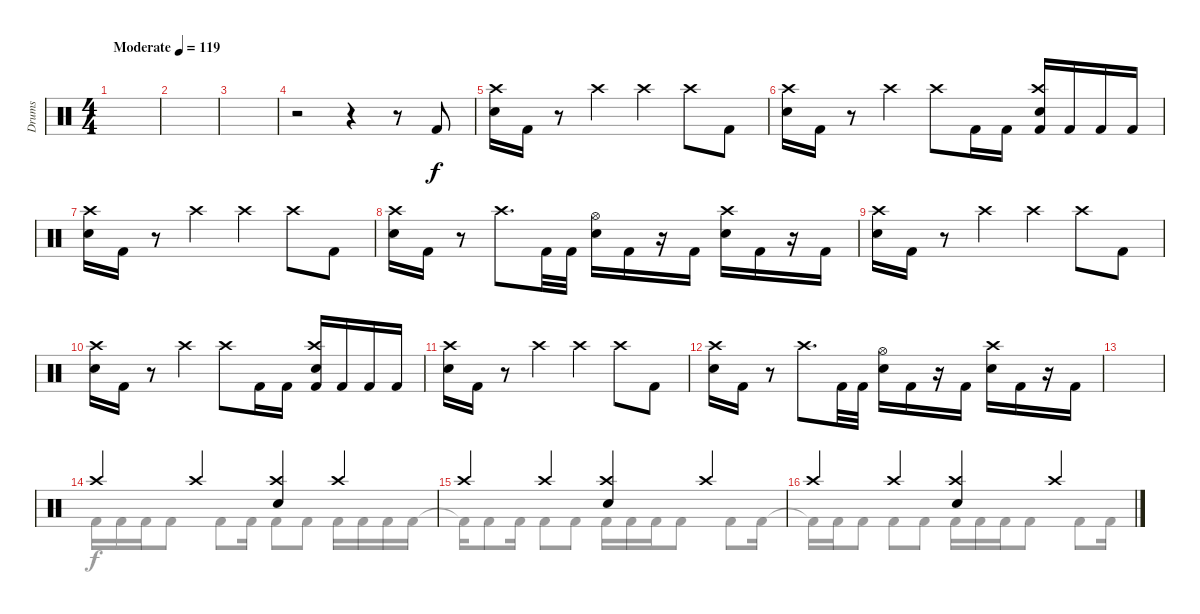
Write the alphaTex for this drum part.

\track ("Drums" "Drums") {instrument percussion}
\staff {score}
\articulation defaults
\voice
\ts (4 4)
\tempo (119 "Moderate")
\clef neutral
\ks c
|
|
|
r.2 r.4 r.8 "Kick (hit) 2".8 |
("Crash high (hit)" "Electric Snare (hit)").16 "Kick (hit) 2".16 r.8 "Crash high (hit)".4 "Crash high (hit)".4 "Crash high (hit)".8 "Kick (hit) 2".8 |
("Crash high (hit)" "Electric Snare (hit)").16 "Kick (hit) 2".16 r.8 "Crash high (hit)".4 "Crash high (hit)".8 "Kick (hit) 2".16 "Kick (hit) 2".16 ("Crash high (hit)" "Electric Snare (hit)" "Kick (hit) 2").16 "Kick (hit) 2".16 "Kick (hit) 2".16 "Kick (hit) 2".16 |
("Crash high (hit)" "Electric Snare (hit)").16 "Kick (hit) 2".16 r.8 "Crash high (hit)".4 "Crash high (hit)".4 "Crash high (hit)".8 "Kick (hit) 2".8 |
("Crash high (hit)" "Electric Snare (hit)").16 "Kick (hit) 2".16 r.8 "Crash high (hit)".8{d} "Kick (hit) 2".32 "Kick (hit) 2".32 ("Hi-Hat (open)" "Electric Snare (hit)").16 "Kick (hit) 2".16 r.16 "Kick (hit) 2".16 ("Crash high (hit)" "Electric Snare (hit)").16 "Kick (hit) 2".16 r.16 "Kick (hit) 2".16 |
("Crash high (hit)" "Electric Snare (hit)").16 "Kick (hit) 2".16 r.8 "Crash high (hit)".4 "Crash high (hit)".4 "Crash high (hit)".8 "Kick (hit) 2".8 |
("Crash high (hit)" "Electric Snare (hit)").16 "Kick (hit) 2".16 r.8 "Crash high (hit)".4 "Crash high (hit)".8 "Kick (hit) 2".16 "Kick (hit) 2".16 ("Crash high (hit)" "Electric Snare (hit)" "Kick (hit) 2").16 "Kick (hit) 2".16 "Kick (hit) 2".16 "Kick (hit) 2".16 |
("Crash high (hit)" "Electric Snare (hit)").16 "Kick (hit) 2".16 r.8 "Crash high (hit)".4 "Crash high (hit)".4 "Crash high (hit)".8 "Kick (hit) 2".8 |
("Crash high (hit)" "Electric Snare (hit)").16 "Kick (hit) 2".16 r.8 "Crash high (hit)".8{d} "Kick (hit) 2".32 "Kick (hit) 2".32 ("Hi-Hat (open)" "Electric Snare (hit)").16 "Kick (hit) 2".16 r.16 "Kick (hit) 2".16 ("Crash high (hit)" "Electric Snare (hit)").16 "Kick (hit) 2".16 r.16 "Kick (hit) 2".16 |
|
"Crash high (hit)".4 "Crash high (hit)".4 ("Crash high (hit)" "Electric Snare (hit)").4 "Crash high (hit)".4 |
"Crash high (hit)".4 "Crash high (hit)".4 ("Crash high (hit)" "Electric Snare (hit)").4 "Crash high (hit)".4 |
"Crash high (hit)".4 "Crash high (hit)".4 ("Crash high (hit)" "Electric Snare (hit)").4 "Crash high (hit)".4
\voice
\clef neutral
\ottava regular
\simile none
\ks c
|
|
|
|
|
|
|
|
|
|
|
|
|
"Kick (hit) 2".16 "Kick (hit) 2".16 "Kick (hit) 2".16 "Kick (hit) 2".8 "Kick (hit) 2".8 "Kick (hit) 2".16 "Kick (hit) 2".8 "Kick (hit) 2".8 "Kick (hit) 2".16 "Kick (hit) 2".16 "Kick (hit) 2".16 "Kick (hit) 2".16 |
"Kick (hit) 2"{t}.16 "Kick (hit) 2".8 "Kick (hit) 2".16 "Kick (hit) 2".8 "Kick (hit) 2".8 "Kick (hit) 2".16 "Kick (hit) 2".16 "Kick (hit) 2".16 "Kick (hit) 2".8 "Kick (hit) 2".8 "Kick (hit) 2".16 |
"Kick (hit) 2"{t}.16 "Kick (hit) 2".16 "Kick (hit) 2".8 "Kick (hit) 2".8 "Kick (hit) 2".8 "Kick (hit) 2".16 "Kick (hit) 2".16 "Kick (hit) 2".16 "Kick (hit) 2".8 "Kick (hit) 2".8 "Kick (hit) 2".16
